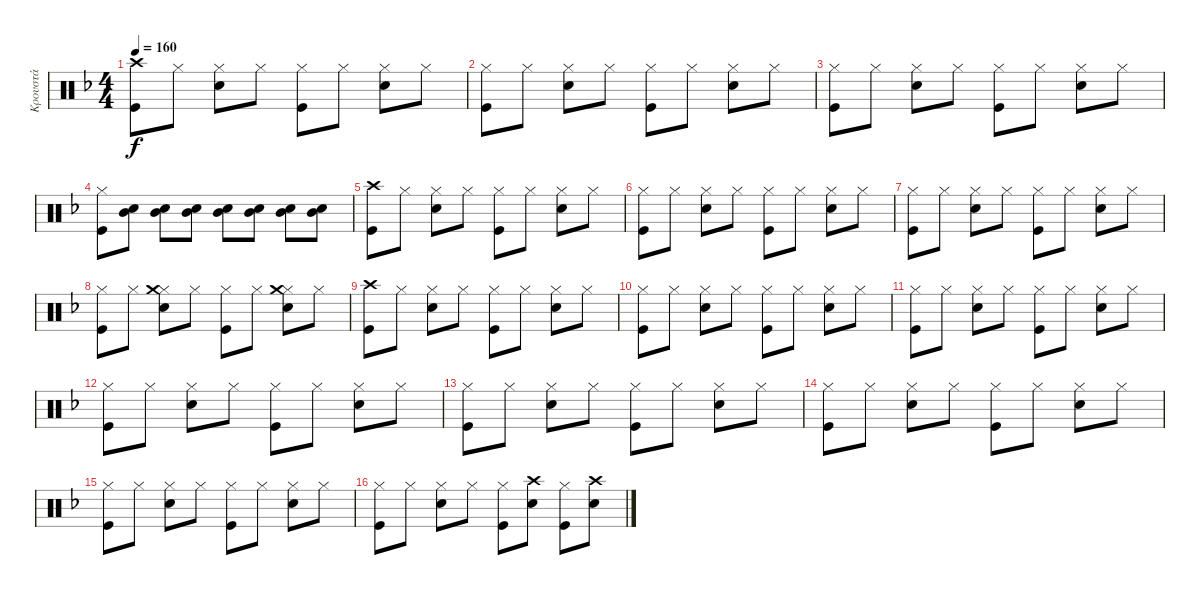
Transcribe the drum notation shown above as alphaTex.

\track ("Κρουστά" "Κρουστά") {instrument percussion}
\staff {score}
\articulation defaults
\ts (4 4)
\tempo 160
\clef neutral
\ks dminor
("Crash high (hit)" "Kick (hit)").8{dy f} "Hi-Hat (closed)".8 ("Hi-Hat (closed)" "Snare (hit) 2").8 "Hi-Hat (closed)".8 ("Hi-Hat (closed)" "Kick (hit)").8 "Hi-Hat (closed)".8 ("Hi-Hat (closed)" "Snare (hit) 2").8 "Hi-Hat (closed)".8 |
("Hi-Hat (closed)" "Kick (hit)").8 "Hi-Hat (closed)".8 ("Hi-Hat (closed)" "Snare (hit) 2").8 "Hi-Hat (closed)".8 ("Hi-Hat (closed)" "Kick (hit)").8 "Hi-Hat (closed)".8 ("Hi-Hat (closed)" "Snare (hit) 2").8 "Hi-Hat (closed)".8 |
("Hi-Hat (closed)" "Kick (hit)").8 "Hi-Hat (closed)".8 ("Hi-Hat (closed)" "Snare (hit) 2").8 "Hi-Hat (closed)".8 ("Hi-Hat (closed)" "Kick (hit)").8 "Hi-Hat (closed)".8 ("Hi-Hat (closed)" "Snare (hit) 2").8 "Hi-Hat (closed)".8 |
("Hi-Hat (closed)" "Kick (hit)").8 ("Mid Tom (hit)" "Snare (hit) 2").8 ("Mid Tom (hit)" "Snare (hit) 2").8 ("Mid Tom (hit)" "Snare (hit) 2").8 ("Mid Tom (hit)" "Snare (hit) 2").8 ("Mid Tom (hit)" "Snare (hit) 2").8 ("Mid Tom (hit)" "Snare (hit) 2").8 ("Mid Tom (hit)" "Snare (hit) 2").8 |
("Crash high (hit)" "Kick (hit)").8 "Hi-Hat (closed)".8 ("Hi-Hat (closed)" "Snare (hit) 2").8 "Hi-Hat (closed)".8 ("Hi-Hat (closed)" "Kick (hit)").8 "Hi-Hat (closed)".8 ("Hi-Hat (closed)" "Snare (hit) 2").8 "Hi-Hat (closed)".8 |
("Hi-Hat (closed)" "Kick (hit)").8 "Hi-Hat (closed)".8 ("Hi-Hat (closed)" "Snare (hit) 2").8 "Hi-Hat (closed)".8 ("Hi-Hat (closed)" "Kick (hit)").8 "Hi-Hat (closed)".8 ("Hi-Hat (closed)" "Snare (hit) 2").8 "Hi-Hat (closed)".8 |
("Hi-Hat (closed)" "Kick (hit)").8 "Hi-Hat (closed)".8 ("Hi-Hat (closed)" "Snare (hit) 2").8 "Hi-Hat (closed)".8 ("Hi-Hat (closed)" "Kick (hit)").8 "Hi-Hat (closed)".8 ("Hi-Hat (closed)" "Snare (hit) 2").8 "Hi-Hat (closed)".8 |
("Hi-Hat (closed)" "Kick (hit)").8 "Hi-Hat (closed)".8 ("Hi-Hat (closed)" "Snare (hit) 2" "Crash medium (hit)").8 "Hi-Hat (closed)".8 ("Hi-Hat (closed)" "Kick (hit)").8 "Hi-Hat (closed)".8 ("Hi-Hat (closed)" "Snare (hit) 2" "Crash medium (hit)").8 "Hi-Hat (closed)".8 |
("Crash high (hit)" "Kick (hit)").8 "Hi-Hat (closed)".8 ("Hi-Hat (closed)" "Snare (hit) 2").8 "Hi-Hat (closed)".8 ("Hi-Hat (closed)" "Kick (hit)").8 "Hi-Hat (closed)".8 ("Hi-Hat (closed)" "Snare (hit) 2").8 "Hi-Hat (closed)".8 |
("Hi-Hat (closed)" "Kick (hit)").8 "Hi-Hat (closed)".8 ("Hi-Hat (closed)" "Snare (hit) 2").8 "Hi-Hat (closed)".8 ("Hi-Hat (closed)" "Kick (hit)").8 "Hi-Hat (closed)".8 ("Hi-Hat (closed)" "Snare (hit) 2").8 "Hi-Hat (closed)".8 |
("Hi-Hat (closed)" "Kick (hit)").8 "Hi-Hat (closed)".8 ("Hi-Hat (closed)" "Snare (hit) 2").8 "Hi-Hat (closed)".8 ("Hi-Hat (closed)" "Kick (hit)").8 "Hi-Hat (closed)".8 ("Hi-Hat (closed)" "Snare (hit) 2").8 "Hi-Hat (closed)".8 |
("Hi-Hat (closed)" "Kick (hit)").8 "Hi-Hat (closed)".8 ("Hi-Hat (closed)" "Snare (hit) 2").8 "Hi-Hat (closed)".8 ("Hi-Hat (closed)" "Kick (hit)").8 "Hi-Hat (closed)".8 ("Hi-Hat (closed)" "Snare (hit) 2").8 "Hi-Hat (closed)".8 |
("Hi-Hat (closed)" "Kick (hit)").8 "Hi-Hat (closed)".8 ("Hi-Hat (closed)" "Snare (hit) 2").8 "Hi-Hat (closed)".8 ("Hi-Hat (closed)" "Kick (hit)").8 "Hi-Hat (closed)".8 ("Hi-Hat (closed)" "Snare (hit) 2").8 "Hi-Hat (closed)".8 |
("Hi-Hat (closed)" "Kick (hit)").8 "Hi-Hat (closed)".8 ("Hi-Hat (closed)" "Snare (hit) 2").8 "Hi-Hat (closed)".8 ("Hi-Hat (closed)" "Kick (hit)").8 "Hi-Hat (closed)".8 ("Hi-Hat (closed)" "Snare (hit) 2").8 "Hi-Hat (closed)".8 |
("Hi-Hat (closed)" "Kick (hit)").8 "Hi-Hat (closed)".8 ("Hi-Hat (closed)" "Snare (hit) 2").8 "Hi-Hat (closed)".8 ("Hi-Hat (closed)" "Kick (hit)").8 "Hi-Hat (closed)".8 ("Hi-Hat (closed)" "Snare (hit) 2").8 "Hi-Hat (closed)".8 |
("Hi-Hat (closed)" "Kick (hit)").8 "Hi-Hat (closed)".8 ("Hi-Hat (closed)" "Snare (hit) 2").8 "Hi-Hat (closed)".8 ("Hi-Hat (closed)" "Kick (hit)").8 ("Crash high (hit)" "Snare (hit) 2").8 ("Hi-Hat (closed)" "Kick (hit)").8 ("Crash high (hit)" "Snare (hit) 2").8
